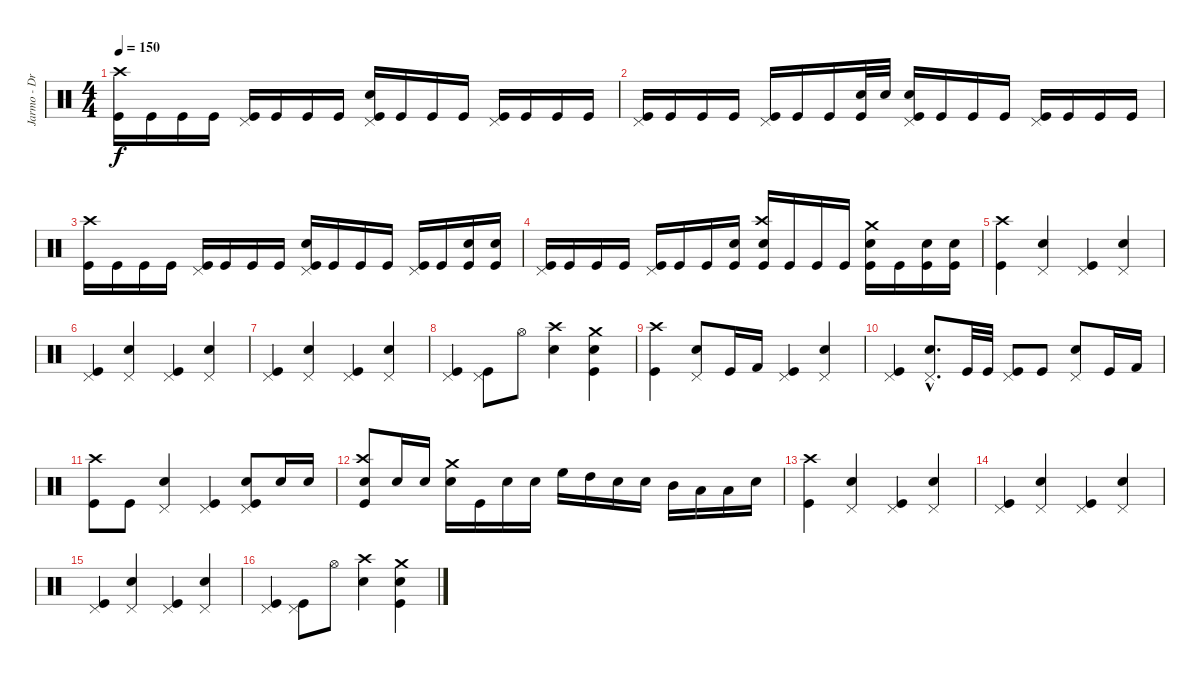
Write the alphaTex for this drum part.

\track ("Jarmo - Drums/Vodka" "Jarmo - Dr") {instrument percussion}
\staff {score}
\articulation defaults
\ts (4 4)
\tempo 150
\clef neutral
\ks c
("Kick (hit)" "Crash high (hit)").16{dy f} "Kick (hit)".16 "Kick (hit)".16 "Kick (hit)".16 ("Kick (hit)" "Pedal Hi-Hat (hit)").16 "Kick (hit)".16 "Kick (hit)".16 "Kick (hit)".16 ("Kick (hit)" "Electric Snare (hit)" "Pedal Hi-Hat (hit)").16 "Kick (hit)".16 "Kick (hit)".16 "Kick (hit)".16 ("Kick (hit)" "Pedal Hi-Hat (hit)").16 "Kick (hit)".16 "Kick (hit)".16 "Kick (hit)".16 |
("Kick (hit)" "Pedal Hi-Hat (hit)").16 "Kick (hit)".16 "Kick (hit)".16 "Kick (hit)".16 ("Kick (hit)" "Pedal Hi-Hat (hit)").16 "Kick (hit)".16 "Kick (hit)".16 ("Kick (hit)" "Electric Snare (hit)").32 "Electric Snare (hit)".32 ("Kick (hit)" "Electric Snare (hit)" "Pedal Hi-Hat (hit)").16 "Kick (hit)".16 "Kick (hit)".16 "Kick (hit)".16 ("Kick (hit)" "Pedal Hi-Hat (hit)").16 "Kick (hit)".16 "Kick (hit)".16 "Kick (hit)".16 |
("Kick (hit)" "Crash high (hit)").16 "Kick (hit)".16 "Kick (hit)".16 "Kick (hit)".16 ("Kick (hit)" "Pedal Hi-Hat (hit)").16 "Kick (hit)".16 "Kick (hit)".16 "Kick (hit)".16 ("Kick (hit)" "Electric Snare (hit)" "Pedal Hi-Hat (hit)").16 "Kick (hit)".16 "Kick (hit)".16 "Kick (hit)".16 ("Kick (hit)" "Pedal Hi-Hat (hit)").16 "Kick (hit)".16 ("Kick (hit)" "Electric Snare (hit)").16 ("Kick (hit)" "Electric Snare (hit)").16 |
("Kick (hit)" "Pedal Hi-Hat (hit)").16 "Kick (hit)".16 "Kick (hit)".16 "Kick (hit)".16 ("Kick (hit)" "Pedal Hi-Hat (hit)").16 "Kick (hit)".16 "Kick (hit)".16 ("Kick (hit)" "Electric Snare (hit)").16 ("Kick (hit)" "Electric Snare (hit)" "Crash high (hit)").16 "Kick (hit)".16 "Kick (hit)".16 "Kick (hit)".16 ("Kick (hit)" "Electric Snare (hit)" "Crash medium (hit)").16 "Kick (hit)".16 ("Kick (hit)" "Electric Snare (hit)").16 ("Kick (hit)" "Electric Snare (hit)").16 |
("Kick (hit)" "Crash high (hit)").4 ("Electric Snare (hit)" "Pedal Hi-Hat (hit)").4 ("Kick (hit)" "Pedal Hi-Hat (hit)").4 ("Electric Snare (hit)" "Pedal Hi-Hat (hit)").4 |
("Kick (hit)" "Pedal Hi-Hat (hit)").4 ("Electric Snare (hit)" "Pedal Hi-Hat (hit)").4 ("Kick (hit)" "Pedal Hi-Hat (hit)").4 ("Electric Snare (hit)" "Pedal Hi-Hat (hit)").4 |
("Kick (hit)" "Pedal Hi-Hat (hit)").4 ("Electric Snare (hit)" "Pedal Hi-Hat (hit)").4 ("Kick (hit)" "Pedal Hi-Hat (hit)").4 ("Electric Snare (hit)" "Pedal Hi-Hat (hit)").4 |
("Kick (hit)" "Pedal Hi-Hat (hit)").4 ("Kick (hit)" "Pedal Hi-Hat (hit)").8 "Hi-Hat (open)".8 ("Electric Snare (hit)" "Crash high (hit)").4 ("Kick (hit)" "Electric Snare (hit)" "Crash medium (hit)").4 |
("Kick (hit)" "Crash high (hit)").4 ("Electric Snare (hit)" "Pedal Hi-Hat (hit)").8 "Kick (hit)".16 "Kick (hit) 2".16 ("Kick (hit)" "Pedal Hi-Hat (hit)").4 ("Electric Snare (hit)" "Pedal Hi-Hat (hit)").4 |
("Kick (hit)" "Pedal Hi-Hat (hit)").4 ("Electric Snare (hit)"{hac} "Pedal Hi-Hat (hit)"{hac}).8{d} "Kick (hit)".32 "Kick (hit)".32 ("Kick (hit)" "Pedal Hi-Hat (hit)").8 "Kick (hit)".8 ("Electric Snare (hit)" "Pedal Hi-Hat (hit)").8 "Kick (hit)".16 "Kick (hit) 2".16 |
("Kick (hit)" "Crash high (hit)").8 "Kick (hit)".8 ("Electric Snare (hit)" "Pedal Hi-Hat (hit)").4 ("Kick (hit)" "Pedal Hi-Hat (hit)").4 ("Kick (hit)" "Electric Snare (hit)" "Pedal Hi-Hat (hit)").8 "Electric Snare (hit)".16 "Electric Snare (hit)".16 |
("Kick (hit)" "Electric Snare (hit)" "Crash high (hit)").8 "Electric Snare (hit)".16 "Electric Snare (hit)".16 ("Electric Snare (hit)" "Crash medium (hit)").16 "Kick (hit)".16 "Electric Snare (hit)".16 "Electric Snare (hit)".16 "High Floor Tom (hit)".16 "High Tom (hit)".16 "Electric Snare (hit)".16 "Electric Snare (hit)".16 "Mid Tom (hit)".16 "Low Tom (hit)".16 "Low Tom (hit)".16 "Electric Snare (hit)".16 |
("Kick (hit)" "Crash high (hit)").4 ("Electric Snare (hit)" "Pedal Hi-Hat (hit)").4 ("Kick (hit)" "Pedal Hi-Hat (hit)").4 ("Electric Snare (hit)" "Pedal Hi-Hat (hit)").4 |
("Kick (hit)" "Pedal Hi-Hat (hit)").4 ("Electric Snare (hit)" "Pedal Hi-Hat (hit)").4 ("Kick (hit)" "Pedal Hi-Hat (hit)").4 ("Electric Snare (hit)" "Pedal Hi-Hat (hit)").4 |
("Kick (hit)" "Pedal Hi-Hat (hit)").4 ("Electric Snare (hit)" "Pedal Hi-Hat (hit)").4 ("Kick (hit)" "Pedal Hi-Hat (hit)").4 ("Electric Snare (hit)" "Pedal Hi-Hat (hit)").4 |
("Kick (hit)" "Pedal Hi-Hat (hit)").4 ("Kick (hit)" "Pedal Hi-Hat (hit)").8 "Hi-Hat (open)".8 ("Electric Snare (hit)" "Crash high (hit)").4 ("Kick (hit)" "Electric Snare (hit)" "Crash medium (hit)").4
